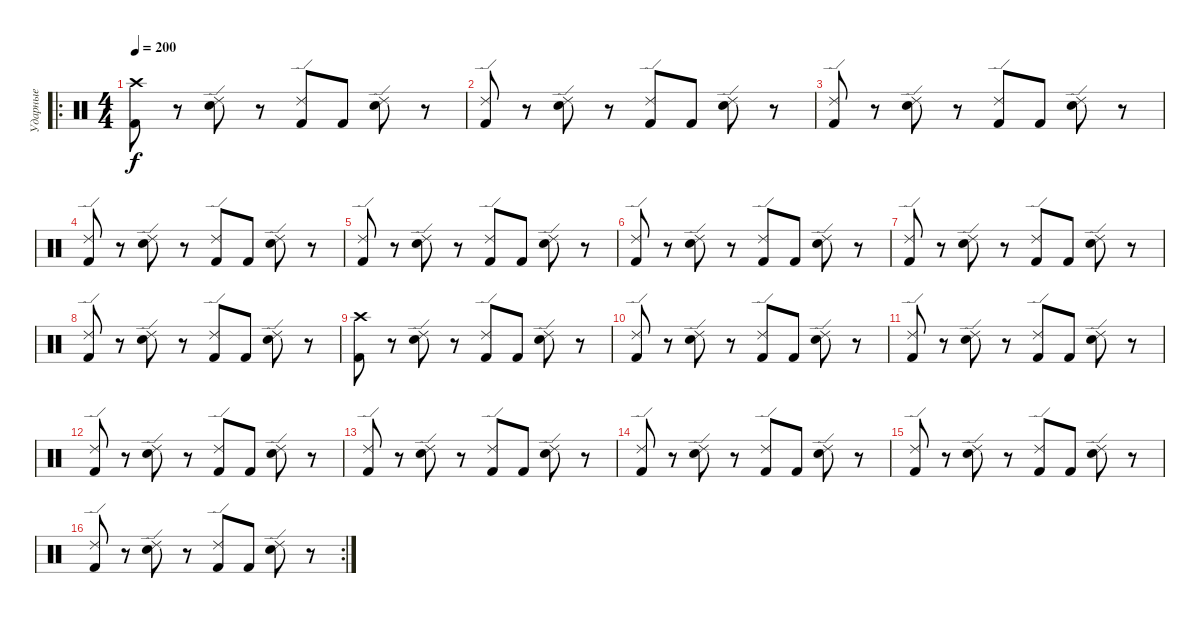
\track ("Ударные" "Ударные") {instrument percussion}
\staff {score}
\articulation defaults
\ro
\ts (4 4)
\tempo 200
\clef neutral
\ks c
("Kick (hit) 2" "Crash high (hit)").8{dy f} r.8 ("Electric Snare (hit)" "Ride (edge) 2").8 r.8 ("Kick (hit) 2" "Ride (edge) 2").8 "Kick (hit) 2".8 ("Electric Snare (hit)" "Ride (edge) 2").8 r.8 |
("Kick (hit) 2" "Ride (edge) 2").8 r.8 ("Electric Snare (hit)" "Ride (edge) 2").8 r.8 ("Kick (hit) 2" "Ride (edge) 2").8 "Kick (hit) 2".8 ("Electric Snare (hit)" "Ride (edge) 2").8 r.8 |
("Kick (hit) 2" "Ride (edge) 2").8 r.8 ("Electric Snare (hit)" "Ride (edge) 2").8 r.8 ("Kick (hit) 2" "Ride (edge) 2").8 "Kick (hit) 2".8 ("Electric Snare (hit)" "Ride (edge) 2").8 r.8 |
("Kick (hit) 2" "Ride (edge) 2").8 r.8 ("Electric Snare (hit)" "Ride (edge) 2").8 r.8 ("Kick (hit) 2" "Ride (edge) 2").8 "Kick (hit) 2".8 ("Electric Snare (hit)" "Ride (edge) 2").8 r.8 |
("Kick (hit) 2" "Ride (edge) 2").8 r.8 ("Electric Snare (hit)" "Ride (edge) 2").8 r.8 ("Kick (hit) 2" "Ride (edge) 2").8 "Kick (hit) 2".8 ("Electric Snare (hit)" "Ride (edge) 2").8 r.8 |
("Kick (hit) 2" "Ride (edge) 2").8 r.8 ("Electric Snare (hit)" "Ride (edge) 2").8 r.8 ("Kick (hit) 2" "Ride (edge) 2").8 "Kick (hit) 2".8 ("Electric Snare (hit)" "Ride (edge) 2").8 r.8 |
("Kick (hit) 2" "Ride (edge) 2").8 r.8 ("Electric Snare (hit)" "Ride (edge) 2").8 r.8 ("Kick (hit) 2" "Ride (edge) 2").8 "Kick (hit) 2".8 ("Electric Snare (hit)" "Ride (edge) 2").8 r.8 |
("Kick (hit) 2" "Ride (edge) 2").8 r.8 ("Electric Snare (hit)" "Ride (edge) 2").8 r.8 ("Kick (hit) 2" "Ride (edge) 2").8 "Kick (hit) 2".8 ("Electric Snare (hit)" "Ride (edge) 2").8 r.8 |
("Kick (hit) 2" "Crash high (hit)").8 r.8 ("Electric Snare (hit)" "Ride (edge) 2").8 r.8 ("Kick (hit) 2" "Ride (edge) 2").8 "Kick (hit) 2".8 ("Electric Snare (hit)" "Ride (edge) 2").8 r.8 |
("Kick (hit) 2" "Ride (edge) 2").8 r.8 ("Electric Snare (hit)" "Ride (edge) 2").8 r.8 ("Kick (hit) 2" "Ride (edge) 2").8 "Kick (hit) 2".8 ("Electric Snare (hit)" "Ride (edge) 2").8 r.8 |
("Kick (hit) 2" "Ride (edge) 2").8 r.8 ("Electric Snare (hit)" "Ride (edge) 2").8 r.8 ("Kick (hit) 2" "Ride (edge) 2").8 "Kick (hit) 2".8 ("Electric Snare (hit)" "Ride (edge) 2").8 r.8 |
("Kick (hit) 2" "Ride (edge) 2").8 r.8 ("Electric Snare (hit)" "Ride (edge) 2").8 r.8 ("Kick (hit) 2" "Ride (edge) 2").8 "Kick (hit) 2".8 ("Electric Snare (hit)" "Ride (edge) 2").8 r.8 |
("Kick (hit) 2" "Ride (edge) 2").8 r.8 ("Electric Snare (hit)" "Ride (edge) 2").8 r.8 ("Kick (hit) 2" "Ride (edge) 2").8 "Kick (hit) 2".8 ("Electric Snare (hit)" "Ride (edge) 2").8 r.8 |
("Kick (hit) 2" "Ride (edge) 2").8 r.8 ("Electric Snare (hit)" "Ride (edge) 2").8 r.8 ("Kick (hit) 2" "Ride (edge) 2").8 "Kick (hit) 2".8 ("Electric Snare (hit)" "Ride (edge) 2").8 r.8 |
("Kick (hit) 2" "Ride (edge) 2").8 r.8 ("Electric Snare (hit)" "Ride (edge) 2").8 r.8 ("Kick (hit) 2" "Ride (edge) 2").8 "Kick (hit) 2".8 ("Electric Snare (hit)" "Ride (edge) 2").8 r.8 |
\rc 2
("Kick (hit) 2" "Ride (edge) 2").8 r.8 ("Electric Snare (hit)" "Ride (edge) 2").8 r.8 ("Kick (hit) 2" "Ride (edge) 2").8 "Kick (hit) 2".8 ("Electric Snare (hit)" "Ride (edge) 2").8 r.8
